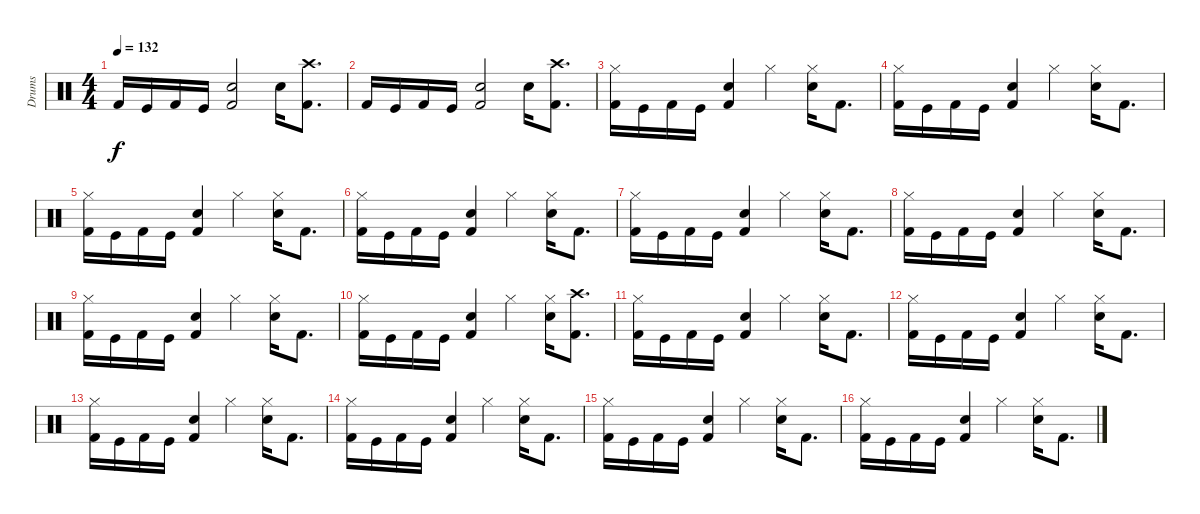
\track ("Drums" "Drums") {instrument percussion}
\staff {score}
\articulation defaults
\ts (4 4)
\tempo 132
\clef neutral
\ks c "Kick (hit) 2".16{dy f} "Kick (hit)".16 "Kick (hit) 2".16 "Kick (hit)".16
("Kick (hit) 2" "Snare (hit) 2").2 "Snare (hit) 2".16 ("Kick (hit) 2" "Crash high (hit)").8{d} |
"Kick (hit) 2".16 "Kick (hit)".16 "Kick (hit) 2".16 "Kick (hit)".16 ("Kick (hit) 2" "Snare (hit) 2").2 "Snare (hit) 2".16 ("Kick (hit) 2" "Crash high (hit)").8{d} |
("Kick (hit) 2" "Hi-Hat (closed)").16 "Kick (hit)".16 "Kick (hit) 2".16 "Kick (hit)".16 ("Kick (hit) 2" "Snare (hit) 2").4 "Hi-Hat (closed)".4 ("Hi-Hat (closed)" "Snare (hit) 2").16 "Kick (hit) 2".8{d} |
("Kick (hit) 2" "Hi-Hat (closed)").16 "Kick (hit)".16 "Kick (hit) 2".16 "Kick (hit)".16 ("Kick (hit) 2" "Snare (hit) 2").4 "Hi-Hat (closed)".4 ("Hi-Hat (closed)" "Snare (hit) 2").16 "Kick (hit) 2".8{d} |
("Kick (hit) 2" "Hi-Hat (closed)").16 "Kick (hit)".16 "Kick (hit) 2".16 "Kick (hit)".16 ("Kick (hit) 2" "Snare (hit) 2").4 "Hi-Hat (closed)".4 ("Hi-Hat (closed)" "Snare (hit) 2").16 "Kick (hit) 2".8{d} |
("Kick (hit) 2" "Hi-Hat (closed)").16 "Kick (hit)".16 "Kick (hit) 2".16 "Kick (hit)".16 ("Kick (hit) 2" "Snare (hit) 2").4 "Hi-Hat (closed)".4 ("Hi-Hat (closed)" "Snare (hit) 2").16 "Kick (hit) 2".8{d} |
("Kick (hit) 2" "Hi-Hat (closed)").16 "Kick (hit)".16 "Kick (hit) 2".16 "Kick (hit)".16 ("Kick (hit) 2" "Snare (hit) 2").4 "Hi-Hat (closed)".4 ("Hi-Hat (closed)" "Snare (hit) 2").16 "Kick (hit) 2".8{d} |
("Kick (hit) 2" "Hi-Hat (closed)").16 "Kick (hit)".16 "Kick (hit) 2".16 "Kick (hit)".16 ("Kick (hit) 2" "Snare (hit) 2").4 "Hi-Hat (closed)".4 ("Hi-Hat (closed)" "Snare (hit) 2").16 "Kick (hit) 2".8{d} |
("Kick (hit) 2" "Hi-Hat (closed)").16 "Kick (hit)".16 "Kick (hit) 2".16 "Kick (hit)".16 ("Kick (hit) 2" "Snare (hit) 2").4 "Hi-Hat (closed)".4 ("Hi-Hat (closed)" "Snare (hit) 2").16 "Kick (hit) 2".8{d} |
("Kick (hit) 2" "Hi-Hat (closed)").16 "Kick (hit)".16 "Kick (hit) 2".16 "Kick (hit)".16 ("Kick (hit) 2" "Snare (hit) 2").4 "Hi-Hat (closed)".4 ("Hi-Hat (closed)" "Snare (hit) 2").16 ("Kick (hit) 2" "Crash high (hit)").8{d} |
("Kick (hit) 2" "Hi-Hat (closed)").16 "Kick (hit)".16 "Kick (hit) 2".16 "Kick (hit)".16 ("Kick (hit) 2" "Snare (hit) 2").4 "Hi-Hat (closed)".4 ("Hi-Hat (closed)" "Snare (hit) 2").16 "Kick (hit) 2".8{d} |
("Kick (hit) 2" "Hi-Hat (closed)").16 "Kick (hit)".16 "Kick (hit) 2".16 "Kick (hit)".16 ("Kick (hit) 2" "Snare (hit) 2").4 "Hi-Hat (closed)".4 ("Hi-Hat (closed)" "Snare (hit) 2").16 "Kick (hit) 2".8{d} |
("Kick (hit) 2" "Hi-Hat (closed)").16 "Kick (hit)".16 "Kick (hit) 2".16 "Kick (hit)".16 ("Kick (hit) 2" "Snare (hit) 2").4 "Hi-Hat (closed)".4 ("Hi-Hat (closed)" "Snare (hit) 2").16 "Kick (hit) 2".8{d} |
("Kick (hit) 2" "Hi-Hat (closed)").16 "Kick (hit)".16 "Kick (hit) 2".16 "Kick (hit)".16 ("Kick (hit) 2" "Snare (hit) 2").4 "Hi-Hat (closed)".4 ("Hi-Hat (closed)" "Snare (hit) 2").16 "Kick (hit) 2".8{d} |
("Kick (hit) 2" "Hi-Hat (closed)").16 "Kick (hit)".16 "Kick (hit) 2".16 "Kick (hit)".16 ("Kick (hit) 2" "Snare (hit) 2").4 "Hi-Hat (closed)".4 ("Hi-Hat (closed)" "Snare (hit) 2").16 "Kick (hit) 2".8{d} |
("Kick (hit) 2" "Hi-Hat (closed)").16 "Kick (hit)".16 "Kick (hit) 2".16 "Kick (hit)".16 ("Kick (hit) 2" "Snare (hit) 2").4 "Hi-Hat (closed)".4 ("Hi-Hat (closed)" "Snare (hit) 2").16 "Kick (hit) 2".8{d}
